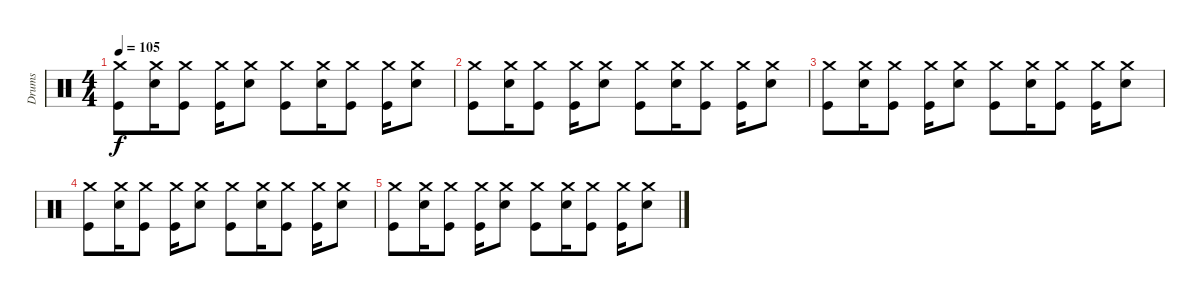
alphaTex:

\track ("Drums" "Drums") {instrument percussion}
\staff {score}
\articulation defaults
\ts (4 4)
\tempo 105
\clef neutral
\ks c
("Crash medium (hit)" "Kick (hit)").8{dy f} ("Crash medium (hit)" "Electric Snare (hit)").16 ("Crash medium (hit)" "Kick (hit)").8 ("Crash medium (hit)" "Kick (hit)").16 ("Crash medium (hit)" "Electric Snare (hit)").8 ("Crash medium (hit)" "Kick (hit)").8 ("Crash medium (hit)" "Electric Snare (hit)").16 ("Crash medium (hit)" "Kick (hit)").8 ("Crash medium (hit)" "Kick (hit)").16 ("Crash medium (hit)" "Electric Snare (hit)").8 |
("Crash medium (hit)" "Kick (hit)").8 ("Crash medium (hit)" "Electric Snare (hit)").16 ("Crash medium (hit)" "Kick (hit)").8 ("Crash medium (hit)" "Kick (hit)").16 ("Crash medium (hit)" "Electric Snare (hit)").8 ("Crash medium (hit)" "Kick (hit)").8 ("Crash medium (hit)" "Electric Snare (hit)").16 ("Crash medium (hit)" "Kick (hit)").8 ("Crash medium (hit)" "Kick (hit)").16 ("Crash medium (hit)" "Electric Snare (hit)").8 |
("Crash medium (hit)" "Kick (hit)").8 ("Crash medium (hit)" "Electric Snare (hit)").16 ("Crash medium (hit)" "Kick (hit)").8 ("Crash medium (hit)" "Kick (hit)").16 ("Crash medium (hit)" "Electric Snare (hit)").8 ("Crash medium (hit)" "Kick (hit)").8 ("Crash medium (hit)" "Electric Snare (hit)").16 ("Crash medium (hit)" "Kick (hit)").8 ("Crash medium (hit)" "Kick (hit)").16 ("Crash medium (hit)" "Electric Snare (hit)").8 |
("Crash medium (hit)" "Kick (hit)").8 ("Crash medium (hit)" "Electric Snare (hit)").16 ("Crash medium (hit)" "Kick (hit)").8 ("Crash medium (hit)" "Kick (hit)").16 ("Crash medium (hit)" "Electric Snare (hit)").8 ("Crash medium (hit)" "Kick (hit)").8 ("Crash medium (hit)" "Electric Snare (hit)").16 ("Crash medium (hit)" "Kick (hit)").8 ("Crash medium (hit)" "Kick (hit)").16 ("Crash medium (hit)" "Electric Snare (hit)").8 |
("Crash medium (hit)" "Kick (hit)").8 ("Crash medium (hit)" "Electric Snare (hit)").16 ("Crash medium (hit)" "Kick (hit)").8 ("Crash medium (hit)" "Kick (hit)").16 ("Crash medium (hit)" "Electric Snare (hit)").8 ("Crash medium (hit)" "Kick (hit)").8 ("Crash medium (hit)" "Electric Snare (hit)").16 ("Crash medium (hit)" "Kick (hit)").8 ("Crash medium (hit)" "Kick (hit)").16 ("Crash medium (hit)" "Electric Snare (hit)").8
